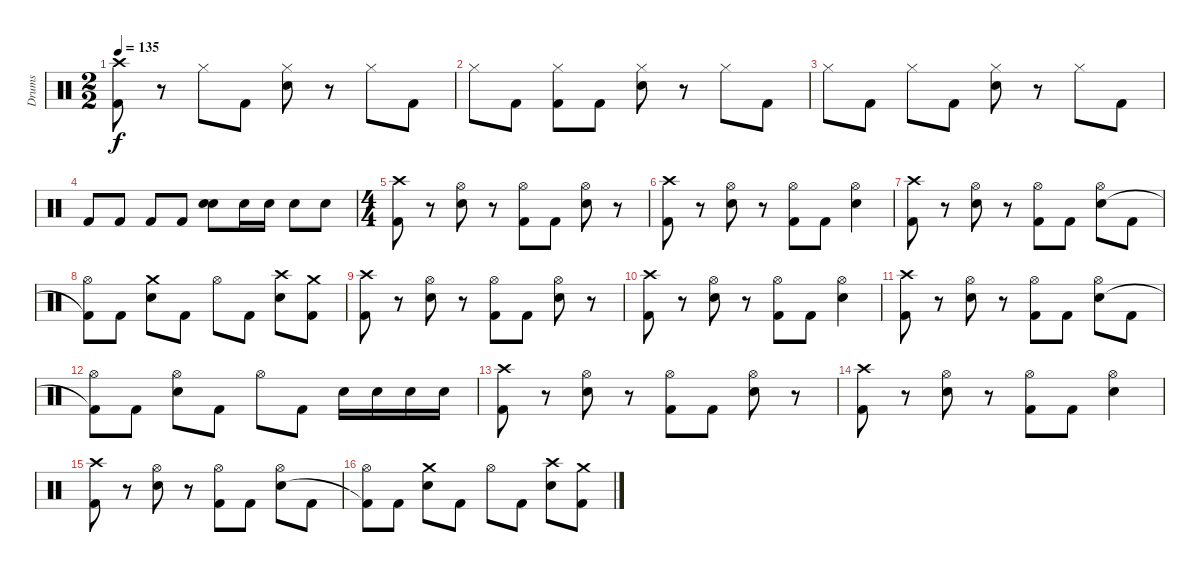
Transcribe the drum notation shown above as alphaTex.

\track ("Drums" "Drums") {instrument percussion}
\staff {score}
\articulation defaults
\ts (2 2)
\tempo 135
\clef neutral
\ks c
("Crash high (hit)" "Kick (hit) 2").8{dy f} r.8 "Hi-Hat (closed)".8 "Kick (hit) 2".8 ("Hi-Hat (closed)" "Snare (hit) 2").8 r.8 "Hi-Hat (closed)".8 "Kick (hit) 2".8 |
"Hi-Hat (closed)".8 "Kick (hit) 2".8 ("Hi-Hat (closed)" "Kick (hit) 2").8 "Kick (hit) 2".8 ("Hi-Hat (closed)" "Snare (hit) 2").8 r.8 "Hi-Hat (closed)".8 "Kick (hit) 2".8 |
"Hi-Hat (closed)".8 "Kick (hit) 2".8 "Hi-Hat (closed)".8 "Kick (hit) 2".8 ("Hi-Hat (closed)" "Snare (hit) 2").8 r.8 "Hi-Hat (closed)".8 "Kick (hit) 2".8 |
"Kick (hit) 2".8 "Kick (hit) 2".8 "Kick (hit) 2".8 "Kick (hit) 2".8 ("Snare (hit) 2" "Snare (hit) 2").8{bd 480} "Snare (hit) 2".16 "Snare (hit) 2".16 "Snare (hit) 2".8 "Snare (hit) 2".8 |
\ts (4 4)
("Crash high (hit)" "Kick (hit) 2").8 r.8 ("Hi-Hat (open)" "Snare (hit) 2").8 r.8 ("Hi-Hat (open)" "Kick (hit) 2").8 "Kick (hit) 2".8 ("Hi-Hat (open)" "Snare (hit) 2").8 r.8 |
("Crash high (hit)" "Kick (hit) 2").8 r.8 ("Hi-Hat (open)" "Snare (hit) 2").8 r.8 ("Hi-Hat (open)" "Kick (hit) 2").8 "Kick (hit) 2".8 ("Hi-Hat (open)" "Snare (hit) 2").4 |
("Crash high (hit)" "Kick (hit) 2").8 r.8 ("Hi-Hat (open)" "Snare (hit) 2").8 r.8 ("Hi-Hat (open)" "Kick (hit) 2").8 "Kick (hit) 2".8 ("Hi-Hat (open)" "Snare (hit) 2").8 "Kick (hit) 2".8 |
("Hi-Hat (open)" "Kick (hit) 2"{t}).8 "Kick (hit) 2".8 ("Crash medium (hit)" "Snare (hit) 2").8 "Kick (hit) 2".8 "Hi-Hat (open)".8 "Kick (hit) 2".8 ("Crash high (hit)" "Snare (hit) 2").8 ("Crash medium (hit)" "Kick (hit) 2").8 |
("Crash high (hit)" "Kick (hit) 2").8 r.8 ("Hi-Hat (open)" "Snare (hit) 2").8 r.8 ("Hi-Hat (open)" "Kick (hit) 2").8 "Kick (hit) 2".8 ("Hi-Hat (open)" "Snare (hit) 2").8 r.8 |
("Crash high (hit)" "Kick (hit) 2").8 r.8 ("Hi-Hat (open)" "Snare (hit) 2").8 r.8 ("Hi-Hat (open)" "Kick (hit) 2").8 "Kick (hit) 2".8 ("Hi-Hat (open)" "Snare (hit) 2").4 |
("Crash high (hit)" "Kick (hit) 2").8 r.8 ("Hi-Hat (open)" "Snare (hit) 2").8 r.8 ("Hi-Hat (open)" "Kick (hit) 2").8 "Kick (hit) 2".8 ("Hi-Hat (open)" "Snare (hit) 2").8 "Kick (hit) 2".8 |
("Hi-Hat (open)" "Kick (hit) 2"{t}).8 "Kick (hit) 2".8 ("Hi-Hat (open)" "Snare (hit) 2").8 "Kick (hit) 2".8 "Hi-Hat (open)".8 "Kick (hit) 2".8 "Snare (hit) 2".16 "Snare (hit) 2".16 "Snare (hit) 2".16 "Snare (hit) 2".16 |
("Crash high (hit)" "Kick (hit) 2").8 r.8 ("Hi-Hat (open)" "Snare (hit) 2").8 r.8 ("Hi-Hat (open)" "Kick (hit) 2").8 "Kick (hit) 2".8 ("Hi-Hat (open)" "Snare (hit) 2").8 r.8 |
("Crash high (hit)" "Kick (hit) 2").8 r.8 ("Hi-Hat (open)" "Snare (hit) 2").8 r.8 ("Hi-Hat (open)" "Kick (hit) 2").8 "Kick (hit) 2".8 ("Hi-Hat (open)" "Snare (hit) 2").4 |
("Crash high (hit)" "Kick (hit) 2").8 r.8 ("Hi-Hat (open)" "Snare (hit) 2").8 r.8 ("Hi-Hat (open)" "Kick (hit) 2").8 "Kick (hit) 2".8 ("Hi-Hat (open)" "Snare (hit) 2").8 "Kick (hit) 2".8 |
("Hi-Hat (open)" "Kick (hit) 2"{t}).8 "Kick (hit) 2".8 ("Crash medium (hit)" "Snare (hit) 2").8 "Kick (hit) 2".8 "Hi-Hat (open)".8 "Kick (hit) 2".8 ("Crash high (hit)" "Snare (hit) 2").8 ("Crash medium (hit)" "Kick (hit) 2").8
